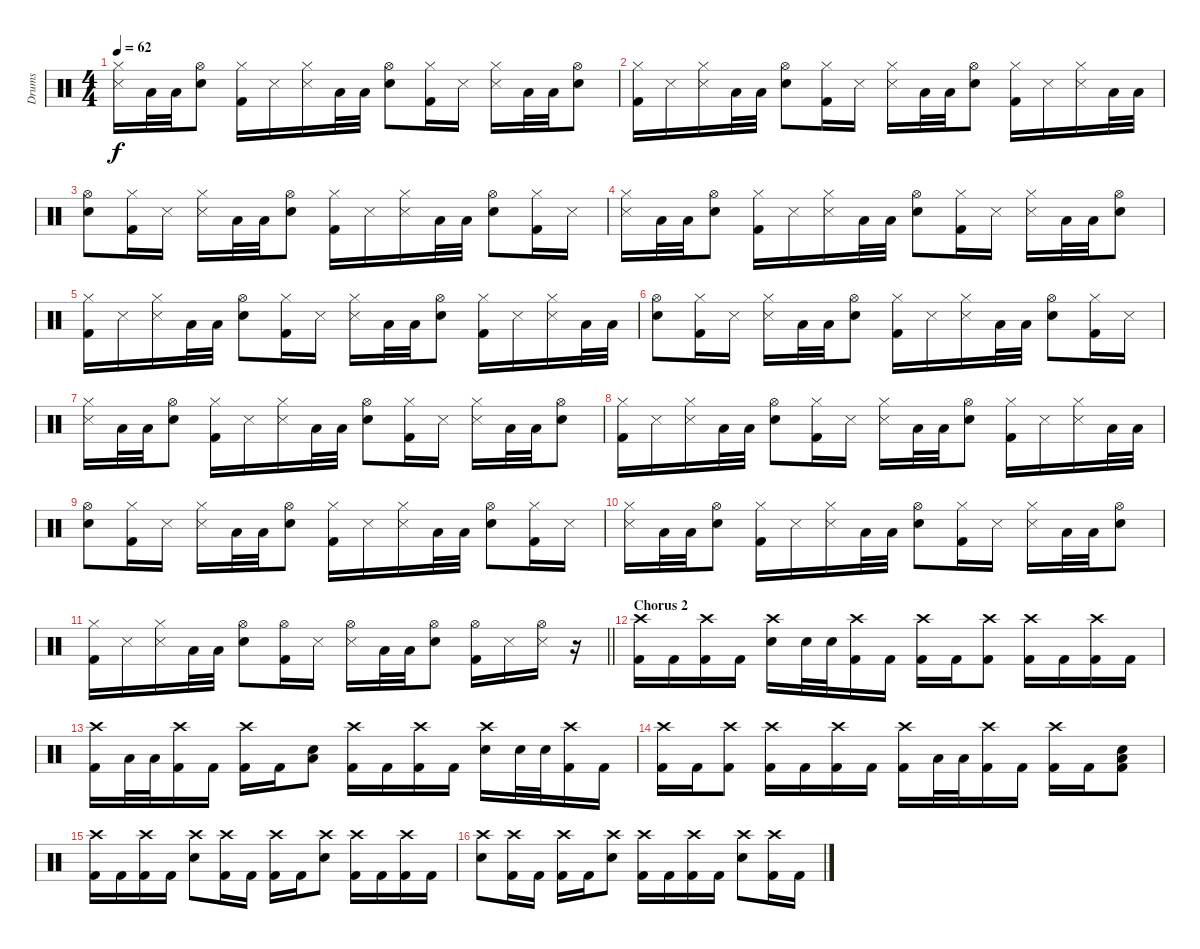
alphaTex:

\track ("Drums" "Drums") {instrument percussion}
\staff {score}
\articulation defaults
\ts (4 4)
\tempo 62
\clef neutral
\ks c
("Hi-Hat (closed)" "Snare (side stick) 3").16{dy f} "Low Tom (hit)".32 "Low Tom (hit)".32 ("Hi-Hat (open)" "Snare (hit) 2").8 ("Hi-Hat (closed)" "Kick (hit) 2").16 "Snare (side stick) 3".16 ("Hi-Hat (closed)" "Snare (side stick) 3").16 "Low Tom (hit)".32 "Low Tom (hit)".32 ("Hi-Hat (open)" "Snare (hit) 2").8 ("Hi-Hat (closed)" "Kick (hit) 2").16 "Snare (side stick) 3".16 ("Hi-Hat (closed)" "Snare (side stick) 3").16 "Low Tom (hit)".32 "Low Tom (hit)".32 ("Hi-Hat (open)" "Snare (hit) 2").8 |
("Hi-Hat (closed)" "Kick (hit) 2").16 "Snare (side stick) 3".16 ("Hi-Hat (closed)" "Snare (side stick) 3").16 "Low Tom (hit)".32 "Low Tom (hit)".32 ("Hi-Hat (open)" "Snare (hit) 2").8 ("Hi-Hat (closed)" "Kick (hit) 2").16 "Snare (side stick) 3".16 ("Hi-Hat (closed)" "Snare (side stick) 3").16 "Low Tom (hit)".32 "Low Tom (hit)".32 ("Hi-Hat (open)" "Snare (hit) 2").8 ("Hi-Hat (closed)" "Kick (hit) 2").16 "Snare (side stick) 3".16 ("Hi-Hat (closed)" "Snare (side stick) 3").16 "Low Tom (hit)".32 "Low Tom (hit)".32 |
("Hi-Hat (open)" "Snare (hit) 2").8 ("Hi-Hat (closed)" "Kick (hit) 2").16 "Snare (side stick) 3".16 ("Hi-Hat (closed)" "Snare (side stick) 3").16 "Low Tom (hit)".32 "Low Tom (hit)".32 ("Hi-Hat (open)" "Snare (hit) 2").8 ("Hi-Hat (closed)" "Kick (hit) 2").16 "Snare (side stick) 3".16 ("Hi-Hat (closed)" "Snare (side stick) 3").16 "Low Tom (hit)".32 "Low Tom (hit)".32 ("Hi-Hat (open)" "Snare (hit) 2").8 ("Hi-Hat (closed)" "Kick (hit) 2").16 "Snare (side stick) 3".16 |
("Hi-Hat (closed)" "Snare (side stick) 3").16 "Low Tom (hit)".32 "Low Tom (hit)".32 ("Hi-Hat (open)" "Snare (hit) 2").8 ("Hi-Hat (closed)" "Kick (hit) 2").16 "Snare (side stick) 3".16 ("Hi-Hat (closed)" "Snare (side stick) 3").16 "Low Tom (hit)".32 "Low Tom (hit)".32 ("Hi-Hat (open)" "Snare (hit) 2").8 ("Hi-Hat (closed)" "Kick (hit) 2").16 "Snare (side stick) 3".16 ("Hi-Hat (closed)" "Snare (side stick) 3").16 "Low Tom (hit)".32 "Low Tom (hit)".32 ("Hi-Hat (open)" "Snare (hit) 2").8 |
("Hi-Hat (closed)" "Kick (hit) 2").16 "Snare (side stick) 3".16 ("Hi-Hat (closed)" "Snare (side stick) 3").16 "Low Tom (hit)".32 "Low Tom (hit)".32 ("Hi-Hat (open)" "Snare (hit) 2").8 ("Hi-Hat (closed)" "Kick (hit) 2").16 "Snare (side stick) 3".16 ("Hi-Hat (closed)" "Snare (side stick) 3").16 "Low Tom (hit)".32 "Low Tom (hit)".32 ("Hi-Hat (open)" "Snare (hit) 2").8 ("Hi-Hat (closed)" "Kick (hit) 2").16 "Snare (side stick) 3".16 ("Hi-Hat (closed)" "Snare (side stick) 3").16 "Low Tom (hit)".32 "Low Tom (hit)".32 |
("Hi-Hat (open)" "Snare (hit) 2").8 ("Hi-Hat (closed)" "Kick (hit) 2").16 "Snare (side stick) 3".16 ("Hi-Hat (closed)" "Snare (side stick) 3").16 "Low Tom (hit)".32 "Low Tom (hit)".32 ("Hi-Hat (open)" "Snare (hit) 2").8 ("Hi-Hat (closed)" "Kick (hit) 2").16 "Snare (side stick) 3".16 ("Hi-Hat (closed)" "Snare (side stick) 3").16 "Low Tom (hit)".32 "Low Tom (hit)".32 ("Hi-Hat (open)" "Snare (hit) 2").8 ("Hi-Hat (closed)" "Kick (hit) 2").16 "Snare (side stick) 3".16 |
("Hi-Hat (closed)" "Snare (side stick) 3").16 "Low Tom (hit)".32 "Low Tom (hit)".32 ("Hi-Hat (open)" "Snare (hit) 2").8 ("Hi-Hat (closed)" "Kick (hit) 2").16 "Snare (side stick) 3".16 ("Hi-Hat (closed)" "Snare (side stick) 3").16 "Low Tom (hit)".32 "Low Tom (hit)".32 ("Hi-Hat (open)" "Snare (hit) 2").8 ("Hi-Hat (closed)" "Kick (hit) 2").16 "Snare (side stick) 3".16 ("Hi-Hat (closed)" "Snare (side stick) 3").16 "Low Tom (hit)".32 "Low Tom (hit)".32 ("Hi-Hat (open)" "Snare (hit) 2").8 |
("Hi-Hat (closed)" "Kick (hit) 2").16 "Snare (side stick) 3".16 ("Hi-Hat (closed)" "Snare (side stick) 3").16 "Low Tom (hit)".32 "Low Tom (hit)".32 ("Hi-Hat (open)" "Snare (hit) 2").8 ("Hi-Hat (closed)" "Kick (hit) 2").16 "Snare (side stick) 3".16 ("Hi-Hat (closed)" "Snare (side stick) 3").16 "Low Tom (hit)".32 "Low Tom (hit)".32 ("Hi-Hat (open)" "Snare (hit) 2").8 ("Hi-Hat (closed)" "Kick (hit) 2").16 "Snare (side stick) 3".16 ("Hi-Hat (closed)" "Snare (side stick) 3").16 "Low Tom (hit)".32 "Low Tom (hit)".32 |
("Hi-Hat (open)" "Snare (hit) 2").8 ("Hi-Hat (closed)" "Kick (hit) 2").16 "Snare (side stick) 3".16 ("Hi-Hat (closed)" "Snare (side stick) 3").16 "Low Tom (hit)".32 "Low Tom (hit)".32 ("Hi-Hat (open)" "Snare (hit) 2").8 ("Hi-Hat (closed)" "Kick (hit) 2").16 "Snare (side stick) 3".16 ("Hi-Hat (closed)" "Snare (side stick) 3").16 "Low Tom (hit)".32 "Low Tom (hit)".32 ("Hi-Hat (open)" "Snare (hit) 2").8 ("Hi-Hat (closed)" "Kick (hit) 2").16 "Snare (side stick) 3".16 |
("Hi-Hat (closed)" "Snare (side stick) 3").16 "Low Tom (hit)".32 "Low Tom (hit)".32 ("Hi-Hat (open)" "Snare (hit) 2").8 ("Hi-Hat (closed)" "Kick (hit) 2").16 "Snare (side stick) 3".16 ("Hi-Hat (closed)" "Snare (side stick) 3").16 "Low Tom (hit)".32 "Low Tom (hit)".32 ("Hi-Hat (open)" "Snare (hit) 2").8 ("Hi-Hat (closed)" "Kick (hit) 2").16 "Snare (side stick) 3".16 ("Hi-Hat (closed)" "Snare (side stick) 3").16 "Low Tom (hit)".32 "Low Tom (hit)".32 ("Hi-Hat (open)" "Snare (hit) 2").8 |
\barLineRight lightlight
("Hi-Hat (closed)" "Kick (hit) 2").16 "Snare (side stick) 3".16 ("Hi-Hat (closed)" "Snare (side stick) 3").16 "Low Tom (hit)".32 "Low Tom (hit)".32 ("Hi-Hat (open)" "Snare (hit) 2").8 ("Hi-Hat (open)" "Kick (hit) 2").16 "Snare (side stick) 3".16 ("Hi-Hat (open)" "Snare (side stick) 3").16 "Low Tom (hit)".32 "Low Tom (hit)".32 ("Hi-Hat (open)" "Snare (hit) 2").8 ("Hi-Hat (open)" "Kick (hit) 2").16 "Snare (side stick) 3".16 ("Hi-Hat (open)" "Snare (side stick) 3").16 r.16 |
\section ("" "Chorus 2")
("Kick (hit) 2" "Crash high (hit)").16 "Kick (hit) 2".16 ("Kick (hit) 2" "Crash high (hit)").16 "Kick (hit) 2".16 ("Electric Snare (hit)" "Crash high (hit)").16 "Electric Snare (hit)".32 "Electric Snare (hit)".32 ("Kick (hit) 2" "Crash high (hit)").16 "Kick (hit) 2".16 ("Kick (hit) 2" "Crash high (hit)").16 "Kick (hit) 2".16 ("Kick (hit) 2" "Crash high (hit)").8 ("Kick (hit) 2" "Crash high (hit)").16 "Kick (hit) 2".16 ("Kick (hit) 2" "Crash high (hit)").16 "Kick (hit) 2".16 |
("Kick (hit) 2" "Crash high (hit)").16 "Low Tom (hit)".32 "Low Tom (hit)".32 ("Kick (hit) 2" "Crash high (hit)").16 "Kick (hit) 2".16 ("Kick (hit) 2" "Crash high (hit)").16 "Kick (hit) 2".16 ("Electric Snare (hit)" "Low Tom (hit)").8 ("Kick (hit) 2" "Crash high (hit)").16 "Kick (hit) 2".16 ("Kick (hit) 2" "Crash high (hit)").16 "Kick (hit) 2".16 ("Electric Snare (hit)" "Crash high (hit)").16 "Electric Snare (hit)".32 "Electric Snare (hit)".32 ("Kick (hit) 2" "Crash high (hit)").16 "Kick (hit) 2".16 |
("Kick (hit) 2" "Crash high (hit)").16 "Kick (hit) 2".16 ("Kick (hit) 2" "Crash high (hit)").8 ("Kick (hit) 2" "Crash high (hit)").16 "Kick (hit) 2".16 ("Kick (hit) 2" "Crash high (hit)").16 "Kick (hit) 2".16 ("Kick (hit) 2" "Crash high (hit)").16 "Low Tom (hit)".32 "Low Tom (hit)".32 ("Kick (hit) 2" "Crash high (hit)").16 "Kick (hit) 2".16 ("Kick (hit) 2" "Crash high (hit)").16 "Kick (hit) 2".16 ("Electric Snare (hit)" "Kick (hit) 2" "Low Tom (hit)").8 |
("Kick (hit) 2" "Crash high (hit)").16 "Kick (hit) 2".16 ("Kick (hit) 2" "Crash high (hit)").16 "Kick (hit) 2".16 ("Electric Snare (hit)" "Crash high (hit)").8 ("Kick (hit) 2" "Crash high (hit)").16 "Kick (hit) 2".16 ("Kick (hit) 2" "Crash high (hit)").16 "Kick (hit) 2".16 ("Electric Snare (hit)" "Crash high (hit)").8 ("Kick (hit) 2" "Crash high (hit)").16 "Kick (hit) 2".16 ("Kick (hit) 2" "Crash high (hit)").16 "Kick (hit) 2".16 |
("Electric Snare (hit)" "Crash high (hit)").8 ("Kick (hit) 2" "Crash high (hit)").16 "Kick (hit) 2".16 ("Kick (hit) 2" "Crash high (hit)").16 "Kick (hit) 2".16 ("Electric Snare (hit)" "Crash high (hit)").8 ("Kick (hit) 2" "Crash high (hit)").16 "Kick (hit) 2".16 ("Kick (hit) 2" "Crash high (hit)").16 "Kick (hit) 2".16 ("Electric Snare (hit)" "Crash high (hit)").8 ("Kick (hit) 2" "Crash high (hit)").16 "Kick (hit) 2".16
